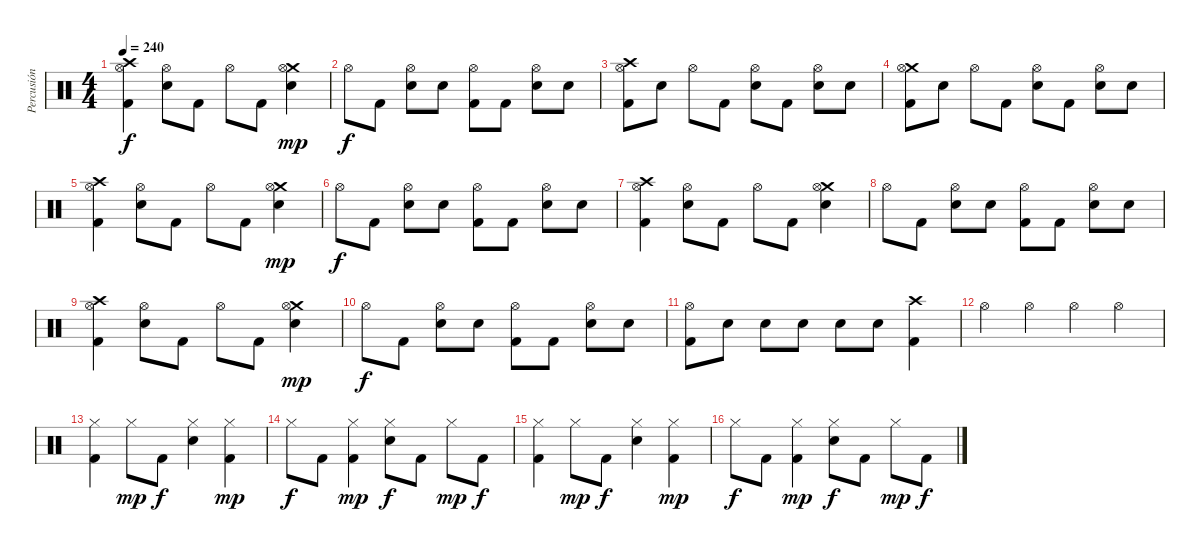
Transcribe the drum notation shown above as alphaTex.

\track ("Percusión" "Percusión") {instrument percussion}
\staff {score}
\articulation defaults
\ts (4 4)
\tempo 240
\clef neutral
\ks c
("Crash high (hit)" "Hi-Hat (open)" "Kick (hit) 2").4{dy f} ("Hi-Hat (open)" "Snare (hit) 2").8 "Kick (hit) 2".8 "Hi-Hat (open)".8 "Kick (hit) 2".8 ("Crash medium (hit)" "Hi-Hat (open)" "Snare (hit) 2").4{dy mp} |
"Hi-Hat (open)".8{dy f} "Kick (hit) 2".8 ("Hi-Hat (open)" "Snare (hit) 2").8 "Snare (hit) 2".8 ("Hi-Hat (open)" "Kick (hit) 2").8 "Kick (hit) 2".8 ("Hi-Hat (open)" "Snare (hit) 2").8 "Snare (hit) 2".8 |
("Crash high (hit)" "Hi-Hat (open)" "Kick (hit) 2").8 "Snare (hit) 2".8 "Hi-Hat (open)".8 "Kick (hit) 2".8 ("Hi-Hat (open)" "Snare (hit) 2").8 "Kick (hit) 2".8 ("Hi-Hat (open)" "Snare (hit) 2").8 "Snare (hit) 2".8 |
("Crash medium (hit)" "Hi-Hat (open)" "Kick (hit) 2").8 "Snare (hit) 2".8 "Hi-Hat (open)".8 "Kick (hit) 2".8 ("Hi-Hat (open)" "Snare (hit) 2").8 "Kick (hit) 2".8 ("Hi-Hat (open)" "Snare (hit) 2").8 "Snare (hit) 2".8 |
("Crash high (hit)" "Hi-Hat (open)" "Kick (hit) 2").4 ("Hi-Hat (open)" "Snare (hit) 2").8 "Kick (hit) 2".8 "Hi-Hat (open)".8 "Kick (hit) 2".8 ("Crash medium (hit)" "Hi-Hat (open)" "Snare (hit) 2").4{dy mp} |
"Hi-Hat (open)".8{dy f} "Kick (hit) 2".8 ("Hi-Hat (open)" "Snare (hit) 2").8 "Snare (hit) 2".8 ("Hi-Hat (open)" "Kick (hit) 2").8 "Kick (hit) 2".8 ("Hi-Hat (open)" "Snare (hit) 2").8 "Snare (hit) 2".8 |
("Crash high (hit)" "Hi-Hat (open)" "Kick (hit) 2").4 ("Hi-Hat (open)" "Snare (hit) 2").8 "Kick (hit) 2".8 "Hi-Hat (open)".8 "Kick (hit) 2".8 ("Crash medium (hit)" "Hi-Hat (open)" "Snare (hit) 2").4 |
"Hi-Hat (open)".8 "Kick (hit) 2".8 ("Hi-Hat (open)" "Snare (hit) 2").8 "Snare (hit) 2".8 ("Hi-Hat (open)" "Kick (hit) 2").8 "Kick (hit) 2".8 ("Hi-Hat (open)" "Snare (hit) 2").8 "Snare (hit) 2".8 |
("Crash high (hit)" "Hi-Hat (open)" "Kick (hit) 2").4 ("Hi-Hat (open)" "Snare (hit) 2").8 "Kick (hit) 2".8 "Hi-Hat (open)".8 "Kick (hit) 2".8 ("Crash medium (hit)" "Hi-Hat (open)" "Snare (hit) 2").4{dy mp} |
"Hi-Hat (open)".8{dy f} "Kick (hit) 2".8 ("Hi-Hat (open)" "Snare (hit) 2").8 "Snare (hit) 2".8 ("Hi-Hat (open)" "Kick (hit) 2").8 "Kick (hit) 2".8 ("Hi-Hat (open)" "Snare (hit) 2").8 "Snare (hit) 2".8 |
("Hi-Hat (open)" "Kick (hit) 2").8 "Snare (hit) 2".8 "Snare (hit) 2".8 "Snare (hit) 2".8 "Snare (hit) 2".8 "Snare (hit) 2".8 ("Crash high (hit)" "Kick (hit) 2").4 |
"Hi-Hat (open)".4 "Hi-Hat (open)".4 "Hi-Hat (open)".4 "Hi-Hat (open)".4 |
("Hi-Hat (closed)" "Kick (hit) 2").4 "Hi-Hat (closed)".8{dy mp} "Kick (hit) 2".8{dy f} ("Hi-Hat (closed)" "Snare (hit) 2").4 ("Hi-Hat (closed)" "Kick (hit) 2").4{dy mp} |
"Hi-Hat (closed)".8{dy f} "Kick (hit) 2".8 ("Hi-Hat (closed)" "Kick (hit) 2").4{dy mp} ("Hi-Hat (closed)" "Snare (hit) 2").8{dy f} "Kick (hit) 2".8 "Hi-Hat (closed)".8{dy mp} "Kick (hit) 2".8{dy f} |
("Hi-Hat (closed)" "Kick (hit) 2").4 "Hi-Hat (closed)".8{dy mp} "Kick (hit) 2".8{dy f} ("Hi-Hat (closed)" "Snare (hit) 2").4 ("Hi-Hat (closed)" "Kick (hit) 2").4{dy mp} |
"Hi-Hat (closed)".8{dy f} "Kick (hit) 2".8 ("Hi-Hat (closed)" "Kick (hit) 2").4{dy mp} ("Hi-Hat (closed)" "Snare (hit) 2").8{dy f} "Kick (hit) 2".8 "Hi-Hat (closed)".8{dy mp} "Kick (hit) 2".8{dy f}
